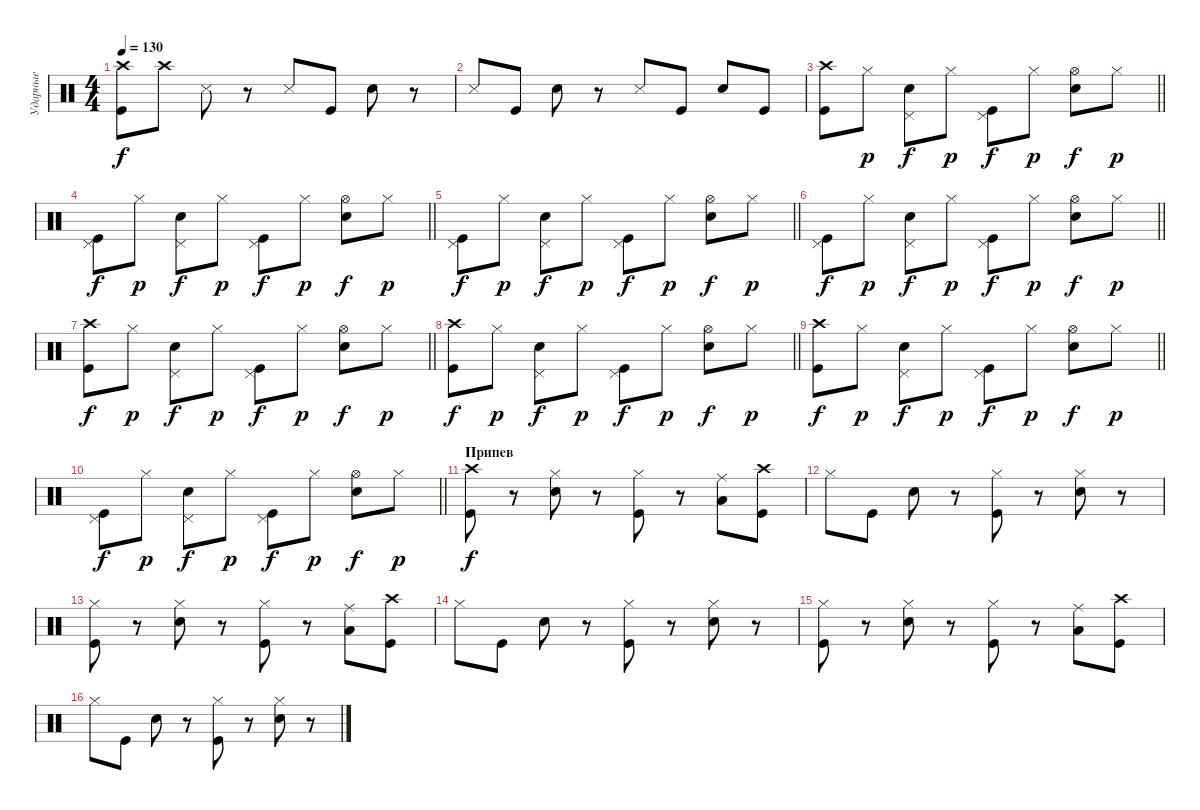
\track ("Ударные" "Ударные") {instrument percussion}
\staff {score}
\articulation defaults
\ts (4 4)
\tempo 130
\clef neutral
\ks c
("Crash high (hit)" "Kick (hit)").8{dy f} "Crash high (hit)".8 "Snare (side stick) 3".8 r.8 "Snare (side stick) 3".8 "Kick (hit)".8 "Snare (hit) 2".8 r.8 |
"Snare (side stick) 3".8 "Kick (hit)".8 "Snare (hit) 2".8 r.8 "Snare (side stick) 3".8 "Kick (hit)".8 "Snare (hit) 2".8 "Kick (hit)".8 |
\barLineRight lightlight
("Crash high (hit)" "Kick (hit)").8 "Hi-Hat (closed)".8{dy p} ("Pedal Hi-Hat (hit)" "Snare (hit) 2").8{dy f} "Hi-Hat (closed)".8{dy p} ("Pedal Hi-Hat (hit)" "Kick (hit)").8{dy f} "Hi-Hat (closed)".8{dy p} ("Hi-Hat (open)" "Snare (hit) 2").8{dy f} "Hi-Hat (closed)".8{dy p} |
\barLineRight lightlight
("Pedal Hi-Hat (hit)" "Kick (hit)").8{dy f} "Hi-Hat (closed)".8{dy p} ("Pedal Hi-Hat (hit)" "Snare (hit) 2").8{dy f} "Hi-Hat (closed)".8{dy p} ("Pedal Hi-Hat (hit)" "Kick (hit)").8{dy f} "Hi-Hat (closed)".8{dy p} ("Hi-Hat (open)" "Snare (hit) 2").8{dy f} "Hi-Hat (closed)".8{dy p} |
\barLineRight lightlight
("Pedal Hi-Hat (hit)" "Kick (hit)").8{dy f} "Hi-Hat (closed)".8{dy p} ("Pedal Hi-Hat (hit)" "Snare (hit) 2").8{dy f} "Hi-Hat (closed)".8{dy p} ("Pedal Hi-Hat (hit)" "Kick (hit)").8{dy f} "Hi-Hat (closed)".8{dy p} ("Hi-Hat (open)" "Snare (hit) 2").8{dy f} "Hi-Hat (closed)".8{dy p} |
\barLineRight lightlight
("Pedal Hi-Hat (hit)" "Kick (hit)").8{dy f} "Hi-Hat (closed)".8{dy p} ("Pedal Hi-Hat (hit)" "Snare (hit) 2").8{dy f} "Hi-Hat (closed)".8{dy p} ("Pedal Hi-Hat (hit)" "Kick (hit)").8{dy f} "Hi-Hat (closed)".8{dy p} ("Hi-Hat (open)" "Snare (hit) 2").8{dy f} "Hi-Hat (closed)".8{dy p} |
\barLineRight lightlight
("Crash high (hit)" "Kick (hit)").8{dy f} "Hi-Hat (closed)".8{dy p} ("Pedal Hi-Hat (hit)" "Snare (hit) 2").8{dy f} "Hi-Hat (closed)".8{dy p} ("Pedal Hi-Hat (hit)" "Kick (hit)").8{dy f} "Hi-Hat (closed)".8{dy p} ("Hi-Hat (open)" "Snare (hit) 2").8{dy f} "Hi-Hat (closed)".8{dy p} |
\barLineRight lightlight
("Crash high (hit)" "Kick (hit)").8{dy f} "Hi-Hat (closed)".8{dy p} ("Pedal Hi-Hat (hit)" "Snare (hit) 2").8{dy f} "Hi-Hat (closed)".8{dy p} ("Pedal Hi-Hat (hit)" "Kick (hit)").8{dy f} "Hi-Hat (closed)".8{dy p} ("Hi-Hat (open)" "Snare (hit) 2").8{dy f} "Hi-Hat (closed)".8{dy p} |
\barLineRight lightlight
("Crash high (hit)" "Kick (hit)").8{dy f} "Hi-Hat (closed)".8{dy p} ("Pedal Hi-Hat (hit)" "Snare (hit) 2").8{dy f} "Hi-Hat (closed)".8{dy p} ("Pedal Hi-Hat (hit)" "Kick (hit)").8{dy f} "Hi-Hat (closed)".8{dy p} ("Hi-Hat (open)" "Snare (hit) 2").8{dy f} "Hi-Hat (closed)".8{dy p} |
\barLineRight lightlight
("Pedal Hi-Hat (hit)" "Kick (hit)").8{dy f} "Hi-Hat (closed)".8{dy p} ("Pedal Hi-Hat (hit)" "Snare (hit) 2").8{dy f} "Hi-Hat (closed)".8{dy p} ("Pedal Hi-Hat (hit)" "Kick (hit)").8{dy f} "Hi-Hat (closed)".8{dy p} ("Hi-Hat (open)" "Snare (hit) 2").8{dy f} "Hi-Hat (closed)".8{dy p} |
\section ("" "Припев")
("Crash high (hit)" "Kick (hit)").8{dy f} r.8 ("Hi-Hat (closed)" "Snare (hit) 2").8 r.8 ("Hi-Hat (closed)" "Kick (hit)").8 r.8 ("Ride (middle)" "Low Tom (hit)").8 ("Crash high (hit)" "Kick (hit)").8 |
"Hi-Hat (closed)".8 "Kick (hit)".8 "Snare (hit) 2".8 r.8 ("Hi-Hat (closed)" "Kick (hit)").8 r.8 ("Hi-Hat (closed)" "Snare (hit) 2").8 r.8 |
("Hi-Hat (closed)" "Kick (hit)").8 r.8 ("Hi-Hat (closed)" "Snare (hit) 2").8 r.8 ("Hi-Hat (closed)" "Kick (hit)").8 r.8 ("Ride (middle)" "Low Tom (hit)").8 ("Crash high (hit)" "Kick (hit)").8 |
"Hi-Hat (closed)".8 "Kick (hit)".8 "Snare (hit) 2".8 r.8 ("Hi-Hat (closed)" "Kick (hit)").8 r.8 ("Hi-Hat (closed)" "Snare (hit) 2").8 r.8 |
("Hi-Hat (closed)" "Kick (hit)").8 r.8 ("Hi-Hat (closed)" "Snare (hit) 2").8 r.8 ("Hi-Hat (closed)" "Kick (hit)").8 r.8 ("Ride (middle)" "Low Tom (hit)").8 ("Crash high (hit)" "Kick (hit)").8 |
"Hi-Hat (closed)".8 "Kick (hit)".8 "Snare (hit) 2".8 r.8 ("Hi-Hat (closed)" "Kick (hit)").8 r.8 ("Hi-Hat (closed)" "Snare (hit) 2").8 r.8
